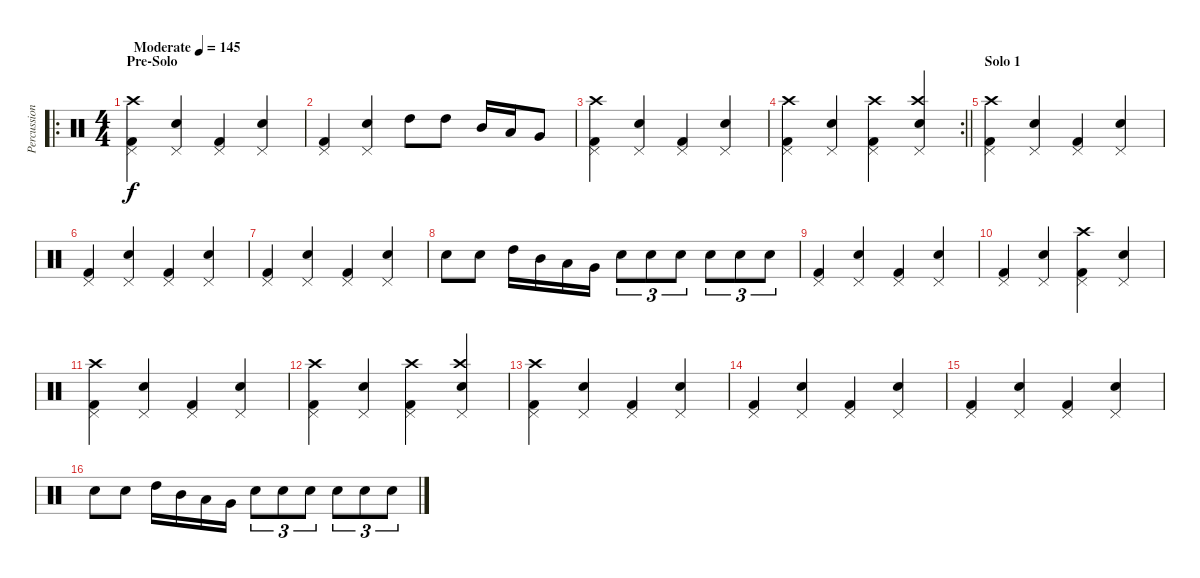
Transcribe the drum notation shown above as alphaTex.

\track ("Percussion" "Percussion") {instrument percussion}
\staff {score}
\articulation defaults
\ro
\ts (4 4)
\section ("" "Pre-Solo")
\tempo (145 "Moderate")
\clef neutral
\ks c
("Pedal Hi-Hat (hit)" "Kick (hit) 2" "Crash high (hit)").4{dy f} ("Pedal Hi-Hat (hit)" "Snare (hit) 2").4 ("Pedal Hi-Hat (hit)" "Kick (hit) 2").4 ("Pedal Hi-Hat (hit)" "Snare (hit) 2").4 |
("Pedal Hi-Hat (hit)" "Kick (hit) 2").4 ("Pedal Hi-Hat (hit)" "Snare (hit) 2").4 "High Tom (hit)".8 "High Tom (hit)".8 "Mid Tom (hit)".16 "Low Tom (hit)".16 "Very Low Tom (hit)".8 |
("Pedal Hi-Hat (hit)" "Kick (hit) 2" "Crash high (hit)").4 ("Pedal Hi-Hat (hit)" "Snare (hit) 2").4 ("Pedal Hi-Hat (hit)" "Kick (hit) 2").4 ("Pedal Hi-Hat (hit)" "Snare (hit) 2").4 |
\rc 2
\barLineRight lightlight
("Pedal Hi-Hat (hit)" "Kick (hit) 2" "Crash high (hit)").4 ("Pedal Hi-Hat (hit)" "Snare (hit) 2").4 ("Pedal Hi-Hat (hit)" "Kick (hit) 2" "Crash high (hit)").4 ("Pedal Hi-Hat (hit)" "Snare (hit) 2" "Crash high (hit)").4 |
\section ("" "Solo 1")
("Pedal Hi-Hat (hit)" "Kick (hit) 2" "Crash high (hit)").4 ("Pedal Hi-Hat (hit)" "Snare (hit) 2").4 ("Pedal Hi-Hat (hit)" "Kick (hit) 2").4 ("Pedal Hi-Hat (hit)" "Snare (hit) 2").4 |
("Pedal Hi-Hat (hit)" "Kick (hit) 2").4 ("Pedal Hi-Hat (hit)" "Snare (hit) 2").4 ("Pedal Hi-Hat (hit)" "Kick (hit) 2").4 ("Pedal Hi-Hat (hit)" "Snare (hit) 2").4 |
("Pedal Hi-Hat (hit)" "Kick (hit) 2").4 ("Pedal Hi-Hat (hit)" "Snare (hit) 2").4 ("Pedal Hi-Hat (hit)" "Kick (hit) 2").4 ("Pedal Hi-Hat (hit)" "Snare (hit) 2").4 |
"Snare (hit) 2".8 "Snare (hit) 2".8 "High Tom (hit)".16 "Mid Tom (hit)".16 "Low Tom (hit)".16 "Very Low Tom (hit)".16 "Snare (hit) 2".8{tu (3 2)} "Snare (hit) 2".8{tu (3 2)} "Snare (hit) 2".8{tu (3 2)} "Snare (hit) 2".8{tu (3 2)} "Snare (hit) 2".8{tu (3 2)} "Snare (hit) 2".8{tu (3 2)} |
("Pedal Hi-Hat (hit)" "Kick (hit) 2").4 ("Pedal Hi-Hat (hit)" "Snare (hit) 2").4 ("Pedal Hi-Hat (hit)" "Kick (hit) 2").4 ("Pedal Hi-Hat (hit)" "Snare (hit) 2").4 |
("Pedal Hi-Hat (hit)" "Kick (hit) 2").4 ("Pedal Hi-Hat (hit)" "Snare (hit) 2").4 ("Pedal Hi-Hat (hit)" "Kick (hit) 2" "Crash high (hit)").4 ("Pedal Hi-Hat (hit)" "Snare (hit) 2").4 |
("Pedal Hi-Hat (hit)" "Kick (hit) 2" "Crash high (hit)").4 ("Pedal Hi-Hat (hit)" "Snare (hit) 2").4 ("Pedal Hi-Hat (hit)" "Kick (hit) 2").4 ("Pedal Hi-Hat (hit)" "Snare (hit) 2").4 |
("Pedal Hi-Hat (hit)" "Kick (hit) 2" "Crash high (hit)").4 ("Pedal Hi-Hat (hit)" "Snare (hit) 2").4 ("Pedal Hi-Hat (hit)" "Kick (hit) 2" "Crash high (hit)").4 ("Pedal Hi-Hat (hit)" "Snare (hit) 2" "Crash high (hit)").4 |
("Pedal Hi-Hat (hit)" "Kick (hit) 2" "Crash high (hit)").4 ("Pedal Hi-Hat (hit)" "Snare (hit) 2").4 ("Pedal Hi-Hat (hit)" "Kick (hit) 2").4 ("Pedal Hi-Hat (hit)" "Snare (hit) 2").4 |
("Pedal Hi-Hat (hit)" "Kick (hit) 2").4 ("Pedal Hi-Hat (hit)" "Snare (hit) 2").4 ("Pedal Hi-Hat (hit)" "Kick (hit) 2").4 ("Pedal Hi-Hat (hit)" "Snare (hit) 2").4 |
("Pedal Hi-Hat (hit)" "Kick (hit) 2").4 ("Pedal Hi-Hat (hit)" "Snare (hit) 2").4 ("Pedal Hi-Hat (hit)" "Kick (hit) 2").4 ("Pedal Hi-Hat (hit)" "Snare (hit) 2").4 |
"Snare (hit) 2".8 "Snare (hit) 2".8 "High Tom (hit)".16 "Mid Tom (hit)".16 "Low Tom (hit)".16 "Very Low Tom (hit)".16 "Snare (hit) 2".8{tu (3 2)} "Snare (hit) 2".8{tu (3 2)} "Snare (hit) 2".8{tu (3 2)} "Snare (hit) 2".8{tu (3 2)} "Snare (hit) 2".8{tu (3 2)} "Snare (hit) 2".8{tu (3 2)}
